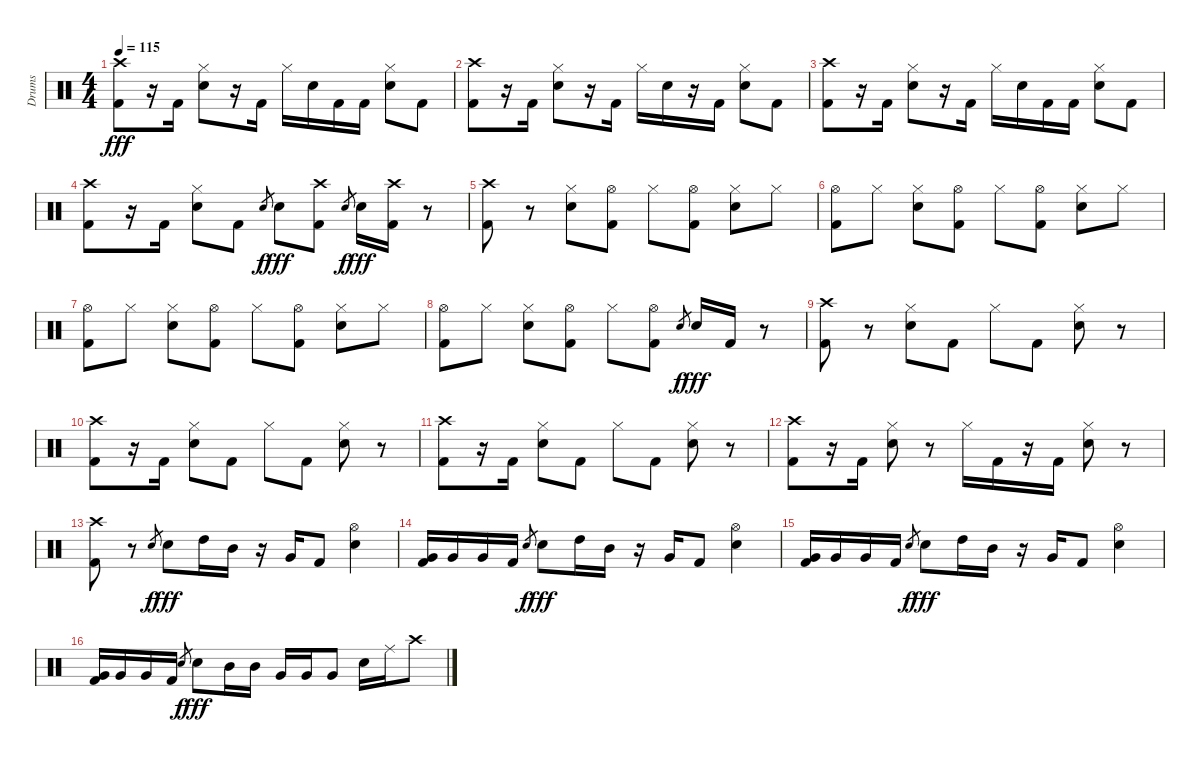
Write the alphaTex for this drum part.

\track ("Drums" "Drums") {instrument percussion}
\staff {score}
\articulation defaults
\ts (4 4)
\tempo 115
\clef neutral
\ks c
("Crash high (hit)" "Kick (hit) 2").8{dy fff} r.16 "Kick (hit) 2".16 ("Hi-Hat (closed)" "Electric Snare (hit)").8 r.16 "Kick (hit) 2".16 "Hi-Hat (closed)".16 "Electric Snare (hit)".16 "Kick (hit) 2".16 "Kick (hit) 2".16 ("Hi-Hat (closed)" "Electric Snare (hit)").8 "Kick (hit) 2".8 |
("Crash high (hit)" "Kick (hit) 2").8 r.16 "Kick (hit) 2".16 ("Hi-Hat (closed)" "Electric Snare (hit)").8 r.16 "Kick (hit) 2".16 "Hi-Hat (closed)".16 "Electric Snare (hit)".16 r.16 "Kick (hit) 2".16 ("Hi-Hat (closed)" "Electric Snare (hit)").8 "Kick (hit) 2".8 |
("Crash high (hit)" "Kick (hit) 2").8 r.16 "Kick (hit) 2".16 ("Hi-Hat (closed)" "Electric Snare (hit)").8 r.16 "Kick (hit) 2".16 "Hi-Hat (closed)".16 "Electric Snare (hit)".16 "Kick (hit) 2".16 "Kick (hit) 2".16 ("Hi-Hat (closed)" "Electric Snare (hit)").8 "Kick (hit) 2".8 |
("Crash high (hit)" "Kick (hit) 2").8 r.16 "Kick (hit) 2".16 ("Hi-Hat (closed)" "Electric Snare (hit)").8 "Kick (hit) 2".8 "Electric Snare (hit)".8{gr dy f} "Electric Snare (hit)".8{dy fff} ("Crash high (hit)" "Kick (hit) 2").8 "Electric Snare (hit)".8{gr dy f} "Electric Snare (hit)".16{dy fff} ("Crash high (hit)" "Kick (hit) 2").16 r.8 |
("Crash high (hit)" "Kick (hit) 2").8 r.8 ("Hi-Hat (closed)" "Electric Snare (hit)").8 ("Hi-Hat (open)" "Kick (hit) 2").8 "Hi-Hat (closed)".8 ("Hi-Hat (open)" "Kick (hit) 2").8 ("Hi-Hat (closed)" "Electric Snare (hit)").8 "Hi-Hat (closed)".8 |
("Hi-Hat (open)" "Kick (hit) 2").8 "Hi-Hat (closed)".8 ("Hi-Hat (closed)" "Electric Snare (hit)").8 ("Hi-Hat (open)" "Kick (hit) 2").8 "Hi-Hat (closed)".8 ("Hi-Hat (open)" "Kick (hit) 2").8 ("Hi-Hat (closed)" "Electric Snare (hit)").8 "Hi-Hat (closed)".8 |
("Hi-Hat (open)" "Kick (hit) 2").8 "Hi-Hat (closed)".8 ("Hi-Hat (closed)" "Electric Snare (hit)").8 ("Hi-Hat (open)" "Kick (hit) 2").8 "Hi-Hat (closed)".8 ("Hi-Hat (open)" "Kick (hit) 2").8 ("Hi-Hat (closed)" "Electric Snare (hit)").8 "Hi-Hat (closed)".8 |
("Hi-Hat (open)" "Kick (hit) 2").8 "Hi-Hat (closed)".8 ("Hi-Hat (closed)" "Electric Snare (hit)").8 ("Hi-Hat (open)" "Kick (hit) 2").8 "Hi-Hat (closed)".8 ("Hi-Hat (open)" "Kick (hit) 2").8 "Electric Snare (hit)".8{gr dy f} "Electric Snare (hit)".16{dy fff} "Kick (hit) 2".16 r.8 |
("Crash high (hit)" "Kick (hit) 2").8 r.8 ("Hi-Hat (closed)" "Electric Snare (hit)").8 "Kick (hit) 2".8 "Hi-Hat (closed)".8 "Kick (hit) 2".8 ("Hi-Hat (closed)" "Electric Snare (hit)").8 r.8 |
("Crash high (hit)" "Kick (hit) 2").8 r.16 "Kick (hit) 2".16 ("Hi-Hat (closed)" "Electric Snare (hit)").8 "Kick (hit) 2".8 "Hi-Hat (closed)".8 "Kick (hit) 2".8 ("Hi-Hat (closed)" "Electric Snare (hit)").8 r.8 |
("Crash high (hit)" "Kick (hit) 2").8 r.16 "Kick (hit) 2".16 ("Hi-Hat (closed)" "Electric Snare (hit)").8 "Kick (hit) 2".8 "Hi-Hat (closed)".8 "Kick (hit) 2".8 ("Hi-Hat (closed)" "Electric Snare (hit)").8 r.8 |
("Crash high (hit)" "Kick (hit) 2").8 r.16 "Kick (hit) 2".16 ("Hi-Hat (closed)" "Electric Snare (hit)").8 r.8 "Hi-Hat (closed)".16 "Kick (hit) 2".16 r.16 "Kick (hit) 2".16 ("Hi-Hat (closed)" "Electric Snare (hit)").8 r.8 |
("Crash high (hit)" "Kick (hit) 2").8 r.8 "Electric Snare (hit)".8{gr dy f} "Electric Snare (hit)".8{dy fff} "High Tom (hit)".16 "Mid Tom (hit)".16 r.16 "Very Low Tom (hit)".16 "Kick (hit) 2".8 ("Hi-Hat (open)" "Electric Snare (hit)").4 |
("Very Low Tom (hit)" "Kick (hit) 2").16 "Very Low Tom (hit)".16 "Very Low Tom (hit)".16 "Kick (hit) 2".16 "Electric Snare (hit)".8{gr dy f} "Electric Snare (hit)".8{dy fff} "High Tom (hit)".16 "Mid Tom (hit)".16 r.16 "Very Low Tom (hit)".16 "Kick (hit) 2".8 ("Hi-Hat (open)" "Electric Snare (hit)").4 |
("Very Low Tom (hit)" "Kick (hit) 2").16 "Very Low Tom (hit)".16 "Very Low Tom (hit)".16 "Kick (hit) 2".16 "Electric Snare (hit)".8{gr dy f} "Electric Snare (hit)".8{dy fff} "High Tom (hit)".16 "Mid Tom (hit)".16 r.16 "Very Low Tom (hit)".16 "Kick (hit) 2".8 ("Hi-Hat (open)" "Electric Snare (hit)").4 |
("Very Low Tom (hit)" "Kick (hit) 2").16 "Very Low Tom (hit)".16 "Very Low Tom (hit)".16 "Kick (hit) 2".16 "Electric Snare (hit)".8{gr dy f} "Electric Snare (hit)".8{dy fff} "Mid Tom (hit)".16 "Mid Tom (hit)".16 "Very Low Tom (hit)".16 "Very Low Tom (hit)".16 "Very Low Tom (hit)".8 "Electric Snare (hit)".16 "Ride (middle)".16 "Crash high (hit)".8
